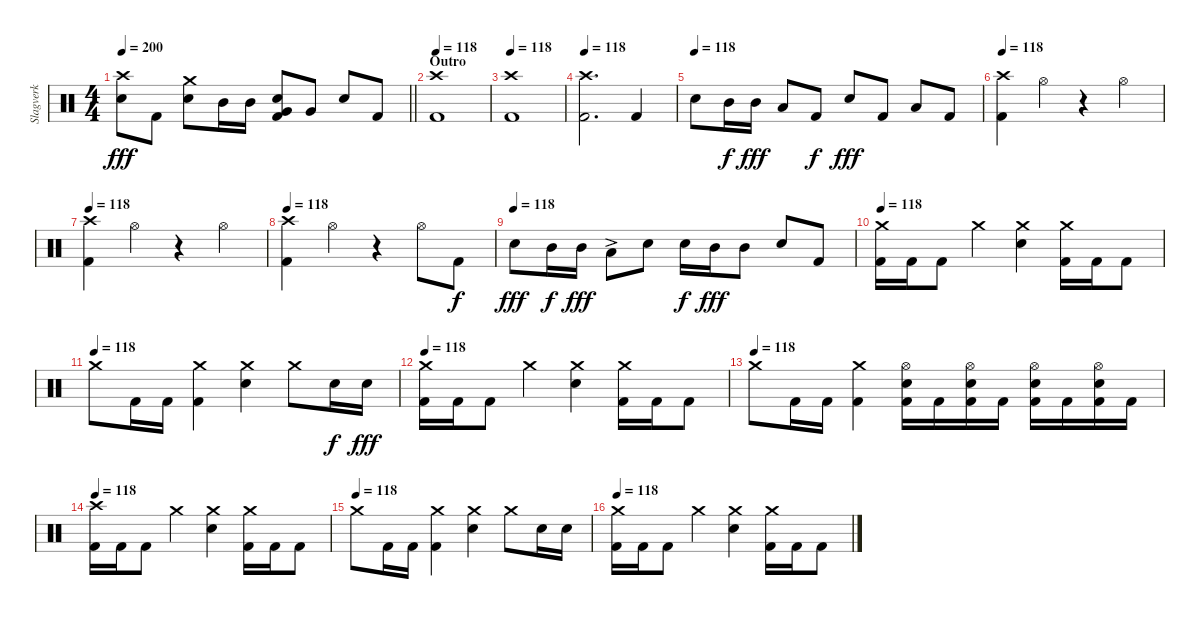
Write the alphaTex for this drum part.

\track ("Slagverk" "Slagverk") {instrument percussion}
\staff {score}
\articulation defaults
\ts (4 4)
\tempo 200
\clef neutral
\barLineRight lightlight
\ks c
("Crash high (hit)" "Electric Snare (hit)").8{dy fff} "Kick (hit) 2".8 ("Crash medium (hit)" "Electric Snare (hit)").8 "Mid Tom (hit)".16 "Mid Tom (hit)".16 ("Very Low Tom (hit)" "Electric Snare (hit)" "Kick (hit) 2").8 "Very Low Tom (hit)".8 "Electric Snare (hit)".8 "Kick (hit) 2".8 |
\section ("" "Outro")
\tempo 117
\tempo 118
("Crash high (hit)" "Kick (hit) 2").1 |
\tempo 118
("Crash high (hit)" "Kick (hit) 2").1 |
\tempo 118
("Crash high (hit)" "Kick (hit) 2").2{d} "Kick (hit) 2".4 |
\tempo (118)
"Electric Snare (hit)".8 "Mid Tom (hit)".16{dy f} "Mid Tom (hit)".16{dy fff} "Low Floor Tom (hit)".8 "Kick (hit) 2".8{dy f} "Electric Snare (hit)".8{dy fff} "Kick (hit) 2".8 "Low Floor Tom (hit)".8 "Kick (hit) 2".8 |
\tempo 117
\tempo 118
("Crash high (hit)" "Kick (hit) 2").4 "Hi-Hat (open)".4 r.4 "Hi-Hat (open)".4 |
\tempo 118
("Crash high (hit)" "Kick (hit) 2").4 "Hi-Hat (open)".4 r.4 "Hi-Hat (open)".4 |
\tempo 118
("Crash high (hit)" "Kick (hit) 2").4 "Hi-Hat (open)".4 r.4 "Hi-Hat (open)".8 "Kick (hit) 2".8{dy f} |
\tempo (118)
"Electric Snare (hit)".8{dy fff} "Mid Tom (hit)".16{dy f} "Mid Tom (hit)".16{dy fff} "Low Floor Tom (hit)"{ac}.8 "Electric Snare (hit)".8 "Electric Snare (hit)".16{dy f} "Mid Tom (hit)".16{dy fff} "Mid Tom (hit)".8 "Electric Snare (hit)".8 "Kick (hit) 2".8 |
\tempo 118
("Crash medium (hit)" "Kick (hit) 2").16 "Kick (hit) 2".16 "Kick (hit) 2".8 "Crash medium (hit)".4 ("Crash medium (hit)" "Electric Snare (hit)").4 ("Crash medium (hit)" "Kick (hit) 2").16 "Kick (hit) 2".16 "Kick (hit) 2".8 |
\tempo (118)
"Crash medium (hit)".8 "Kick (hit) 2".16 "Kick (hit) 2".16 ("Crash medium (hit)" "Kick (hit) 2").4 ("Crash medium (hit)" "Electric Snare (hit)").4 "Crash medium (hit)".8 "Electric Snare (hit)".16{dy f} "Electric Snare (hit)".16{dy fff} |
\tempo 118
("Crash medium (hit)" "Kick (hit) 2").16 "Kick (hit) 2".16 "Kick (hit) 2".8 "Crash medium (hit)".4 ("Crash medium (hit)" "Electric Snare (hit)").4 ("Crash medium (hit)" "Kick (hit) 2").16 "Kick (hit) 2".16 "Kick (hit) 2".8 |
\tempo (118)
"Crash medium (hit)".8 "Kick (hit) 2".16 "Kick (hit) 2".16 ("Crash medium (hit)" "Kick (hit) 2").4 ("Hi-Hat (open)" "Electric Snare (hit)" "Kick (hit) 2").16 "Kick (hit) 2".16 ("Hi-Hat (open)" "Electric Snare (hit)" "Kick (hit) 2").16 "Kick (hit) 2".16 ("Hi-Hat (open)" "Electric Snare (hit)" "Kick (hit) 2").16 "Kick (hit) 2".16 ("Hi-Hat (open)" "Electric Snare (hit)" "Kick (hit) 2").16 "Kick (hit) 2".16 |
\tempo 118
("Crash high (hit)" "Kick (hit) 2").16 "Kick (hit) 2".16 "Kick (hit) 2".8 "Crash medium (hit)".4 ("Crash medium (hit)" "Electric Snare (hit)").4 ("Crash medium (hit)" "Kick (hit) 2").16 "Kick (hit) 2".16 "Kick (hit) 2".8 |
\tempo (118)
"Crash medium (hit)".8 "Kick (hit) 2".16 "Kick (hit) 2".16 ("Crash medium (hit)" "Kick (hit) 2").4 ("Crash medium (hit)" "Electric Snare (hit)").4 "Crash medium (hit)".8 "Electric Snare (hit)".16 "Electric Snare (hit)".16 |
\tempo 118
("Crash medium (hit)" "Kick (hit) 2").16 "Kick (hit) 2".16 "Kick (hit) 2".8 "Crash medium (hit)".4 ("Crash medium (hit)" "Electric Snare (hit)").4 ("Crash medium (hit)" "Kick (hit) 2").16 "Kick (hit) 2".16 "Kick (hit) 2".8
